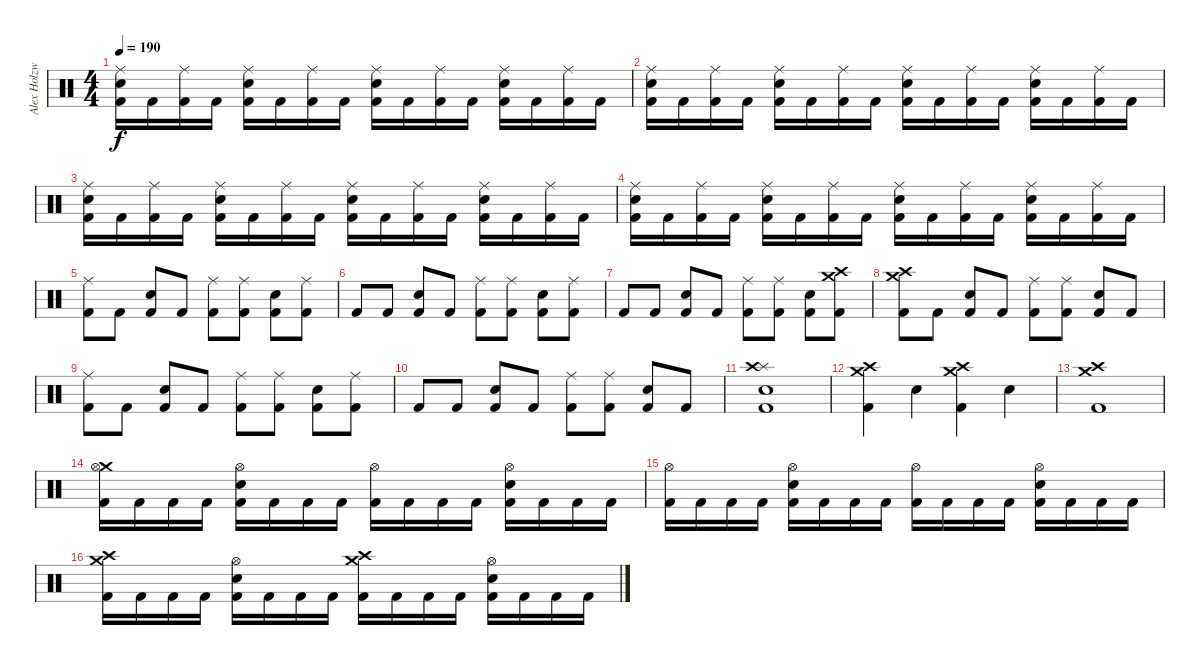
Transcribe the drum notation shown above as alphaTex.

\track ("Alex Holzwarth" "Alex Holzw") {instrument percussion}
\staff {score}
\articulation defaults
\ts (4 4)
\tempo 190
\clef neutral
\ks c
("Kick (hit) 2" "Electric Snare (hit)" "Ride (middle)").16{dy f} "Kick (hit) 2".16 ("Kick (hit) 2" "Ride (middle)").16 "Kick (hit) 2".16 ("Kick (hit) 2" "Electric Snare (hit)" "Ride (middle)").16 "Kick (hit) 2".16 ("Kick (hit) 2" "Ride (middle)").16 "Kick (hit) 2".16 ("Kick (hit) 2" "Electric Snare (hit)" "Ride (middle)").16 "Kick (hit) 2".16 ("Kick (hit) 2" "Ride (middle)").16 "Kick (hit) 2".16 ("Kick (hit) 2" "Electric Snare (hit)" "Ride (middle)").16 "Kick (hit) 2".16 ("Kick (hit) 2" "Ride (middle)").16 "Kick (hit) 2".16 |
("Kick (hit) 2" "Electric Snare (hit)" "Ride (middle)").16 "Kick (hit) 2".16 ("Kick (hit) 2" "Ride (middle)").16 "Kick (hit) 2".16 ("Kick (hit) 2" "Electric Snare (hit)" "Ride (middle)").16 "Kick (hit) 2".16 ("Kick (hit) 2" "Ride (middle)").16 "Kick (hit) 2".16 ("Kick (hit) 2" "Electric Snare (hit)" "Ride (middle)").16 "Kick (hit) 2".16 ("Kick (hit) 2" "Ride (middle)").16 "Kick (hit) 2".16 ("Kick (hit) 2" "Electric Snare (hit)" "Ride (middle)").16 "Kick (hit) 2".16 ("Kick (hit) 2" "Ride (middle)").16 "Kick (hit) 2".16 |
("Kick (hit) 2" "Electric Snare (hit)" "Ride (middle)").16 "Kick (hit) 2".16 ("Kick (hit) 2" "Ride (middle)").16 "Kick (hit) 2".16 ("Kick (hit) 2" "Electric Snare (hit)" "Ride (middle)").16 "Kick (hit) 2".16 ("Kick (hit) 2" "Ride (middle)").16 "Kick (hit) 2".16 ("Kick (hit) 2" "Electric Snare (hit)" "Ride (middle)").16 "Kick (hit) 2".16 ("Kick (hit) 2" "Ride (middle)").16 "Kick (hit) 2".16 ("Kick (hit) 2" "Electric Snare (hit)" "Ride (middle)").16 "Kick (hit) 2".16 ("Kick (hit) 2" "Ride (middle)").16 "Kick (hit) 2".16 |
("Kick (hit) 2" "Electric Snare (hit)" "Ride (middle)").16 "Kick (hit) 2".16 ("Kick (hit) 2" "Ride (middle)").16 "Kick (hit) 2".16 ("Kick (hit) 2" "Electric Snare (hit)" "Ride (middle)").16 "Kick (hit) 2".16 ("Kick (hit) 2" "Ride (middle)").16 "Kick (hit) 2".16 ("Kick (hit) 2" "Electric Snare (hit)" "Ride (middle)").16 "Kick (hit) 2".16 ("Kick (hit) 2" "Ride (middle)").16 "Kick (hit) 2".16 ("Kick (hit) 2" "Electric Snare (hit)" "Ride (middle)").16 "Kick (hit) 2".16 ("Kick (hit) 2" "Ride (middle)").16 "Kick (hit) 2".16 |
("Kick (hit) 2" "Ride (middle)").8 "Kick (hit) 2".8 ("Kick (hit) 2" "Electric Snare (hit)").8 "Kick (hit) 2".8 ("Kick (hit) 2" "Ride (middle)").8 ("Kick (hit) 2" "Ride (middle)").8 ("Kick (hit) 2" "Electric Snare (hit)").8 ("Kick (hit) 2" "Ride (middle)").8 |
"Kick (hit) 2".8 "Kick (hit) 2".8 ("Kick (hit) 2" "Electric Snare (hit)").8 "Kick (hit) 2".8 ("Kick (hit) 2" "Ride (middle)").8 ("Kick (hit) 2" "Ride (middle)").8 ("Kick (hit) 2" "Electric Snare (hit)").8 ("Kick (hit) 2" "Ride (middle)").8 |
"Kick (hit) 2".8 "Kick (hit) 2".8 ("Kick (hit) 2" "Electric Snare (hit)").8 "Kick (hit) 2".8 ("Kick (hit) 2" "Ride (middle)").8 ("Kick (hit) 2" "Ride (middle)").8 ("Kick (hit) 2" "Electric Snare (hit)").8 ("Kick (hit) 2" "Crash high (hit)" "Crash medium (hit)").8 |
("Kick (hit) 2" "Crash high (hit)" "Crash medium (hit)").8 "Kick (hit) 2".8 ("Kick (hit) 2" "Electric Snare (hit)").8 "Kick (hit) 2".8 ("Kick (hit) 2" "Ride (middle)").8 ("Kick (hit) 2" "Ride (middle)").8 ("Kick (hit) 2" "Electric Snare (hit)").8 "Kick (hit) 2".8 |
("Kick (hit) 2" "Ride (middle)").8 "Kick (hit) 2".8 ("Kick (hit) 2" "Electric Snare (hit)").8 "Kick (hit) 2".8 ("Kick (hit) 2" "Ride (middle)").8 ("Kick (hit) 2" "Ride (middle)").8 ("Kick (hit) 2" "Electric Snare (hit)").8 ("Kick (hit) 2" "Ride (middle)").8 |
"Kick (hit) 2".8 "Kick (hit) 2".8 ("Kick (hit) 2" "Electric Snare (hit)").8 "Kick (hit) 2".8 ("Kick (hit) 2" "Ride (middle)").8 ("Kick (hit) 2" "Ride (middle)").8 ("Kick (hit) 2" "Electric Snare (hit)").8 "Kick (hit) 2".8 |
("Kick (hit) 2" "Electric Snare (hit)" "Splash (hit)" "Crash high (hit)").1 |
("Kick (hit) 2" "Crash high (hit)" "Crash medium (hit)").4 "Electric Snare (hit)".4 ("Kick (hit) 2" "Crash high (hit)" "Crash medium (hit)").4 "Electric Snare (hit)".4 |
("Kick (hit) 2" "Crash high (hit)" "Crash medium (hit)").1 |
("Kick (hit) 2" "Crash medium (hit)" "Hi-Hat (open)").16 "Kick (hit) 2".16 "Kick (hit) 2".16 "Kick (hit) 2".16 ("Kick (hit) 2" "Electric Snare (hit)" "Hi-Hat (open)").16 "Kick (hit) 2".16 "Kick (hit) 2".16 "Kick (hit) 2".16 ("Kick (hit) 2" "Hi-Hat (open)").16 "Kick (hit) 2".16 "Kick (hit) 2".16 "Kick (hit) 2".16 ("Kick (hit) 2" "Electric Snare (hit)" "Hi-Hat (open)").16 "Kick (hit) 2".16 "Kick (hit) 2".16 "Kick (hit) 2".16 |
("Kick (hit) 2" "Hi-Hat (open)").16 "Kick (hit) 2".16 "Kick (hit) 2".16 "Kick (hit) 2".16 ("Kick (hit) 2" "Electric Snare (hit)" "Hi-Hat (open)").16 "Kick (hit) 2".16 "Kick (hit) 2".16 "Kick (hit) 2".16 ("Kick (hit) 2" "Hi-Hat (open)").16 "Kick (hit) 2".16 "Kick (hit) 2".16 "Kick (hit) 2".16 ("Kick (hit) 2" "Electric Snare (hit)" "Hi-Hat (open)").16 "Kick (hit) 2".16 "Kick (hit) 2".16 "Kick (hit) 2".16 |
("Kick (hit) 2" "Crash high (hit)" "Crash medium (hit)").16 "Kick (hit) 2".16 "Kick (hit) 2".16 "Kick (hit) 2".16 ("Kick (hit) 2" "Electric Snare (hit)" "Hi-Hat (open)").16 "Kick (hit) 2".16 "Kick (hit) 2".16 "Kick (hit) 2".16 ("Kick (hit) 2" "Crash medium (hit)" "Crash high (hit)").16 "Kick (hit) 2".16 "Kick (hit) 2".16 "Kick (hit) 2".16 ("Kick (hit) 2" "Electric Snare (hit)" "Hi-Hat (open)").16 "Kick (hit) 2".16 "Kick (hit) 2".16 "Kick (hit) 2".16
